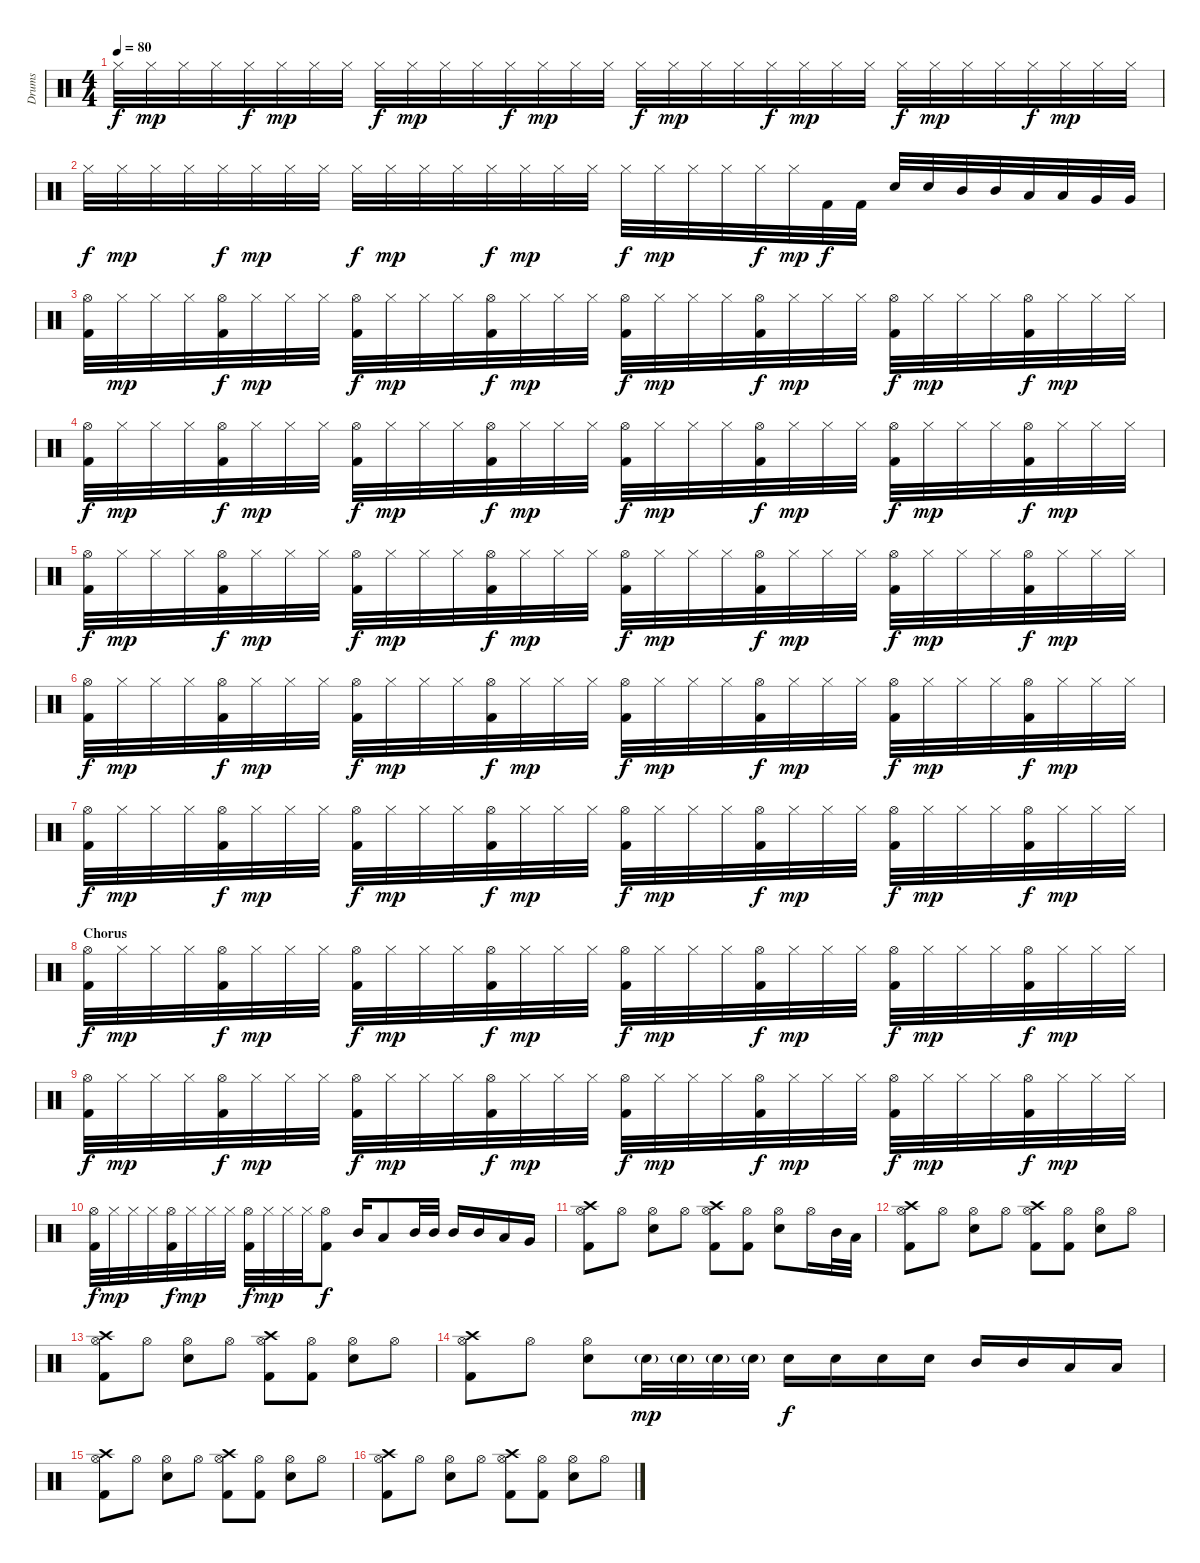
\track ("Drums" "Drums") {instrument percussion}
\staff {score}
\articulation defaults
\ts (4 4)
\tempo 80
\clef neutral
\ks c "Hi-Hat (closed)".32{dy f} "Hi-Hat (closed)".32{dy mp} "Hi-Hat (closed)".32 "Hi-Hat (closed)".32 "Hi-Hat (closed)".32{dy f} "Hi-Hat (closed)".32{dy mp} "Hi-Hat (closed)".32 "Hi-Hat (closed)".32 "Hi-Hat (closed)".32{dy f} "Hi-Hat (closed)".32{dy mp} "Hi-Hat (closed)".32 "Hi-Hat (closed)".32 "Hi-Hat (closed)".32{dy f} "Hi-Hat (closed)".32{dy mp} "Hi-Hat (closed)".32 "Hi-Hat (closed)".32 "Hi-Hat (closed)".32{dy f} "Hi-Hat (closed)".32{dy mp} "Hi-Hat (closed)".32 "Hi-Hat (closed)".32 "Hi-Hat (closed)".32{dy f} "Hi-Hat (closed)".32{dy mp} "Hi-Hat (closed)".32 "Hi-Hat (closed)".32 "Hi-Hat (closed)".32{dy f} "Hi-Hat (closed)".32{dy mp} "Hi-Hat (closed)".32 "Hi-Hat (closed)".32 "Hi-Hat (closed)".32{dy f} "Hi-Hat (closed)".32{dy mp} "Hi-Hat (closed)".32 "Hi-Hat (closed)".32
|
"Hi-Hat (closed)".32{dy f} "Hi-Hat (closed)".32{dy mp} "Hi-Hat (closed)".32 "Hi-Hat (closed)".32 "Hi-Hat (closed)".32{dy f} "Hi-Hat (closed)".32{dy mp} "Hi-Hat (closed)".32 "Hi-Hat (closed)".32 "Hi-Hat (closed)".32{dy f} "Hi-Hat (closed)".32{dy mp} "Hi-Hat (closed)".32 "Hi-Hat (closed)".32 "Hi-Hat (closed)".32{dy f} "Hi-Hat (closed)".32{dy mp} "Hi-Hat (closed)".32 "Hi-Hat (closed)".32 "Hi-Hat (closed)".32{dy f} "Hi-Hat (closed)".32{dy mp} "Hi-Hat (closed)".32 "Hi-Hat (closed)".32 "Hi-Hat (closed)".32{dy f} "Hi-Hat (closed)".32{dy mp} "Kick (hit) 2".32{dy f} "Kick (hit) 2".32 "Electric Snare (hit)".32 "Electric Snare (hit)".32 "Mid Tom (hit)".32 "Mid Tom (hit)".32 "Low Tom (hit)".32 "Low Tom (hit)".32 "Very Low Tom (hit)".32 "Very Low Tom (hit)".32 |
("Kick (hit) 2" "Hi-Hat (open)").32 "Hi-Hat (closed)".32{dy mp} "Hi-Hat (closed)".32 "Hi-Hat (closed)".32 ("Kick (hit) 2" "Hi-Hat (open)").32{dy f} "Hi-Hat (closed)".32{dy mp} "Hi-Hat (closed)".32 "Hi-Hat (closed)".32 ("Kick (hit) 2" "Hi-Hat (open)").32{dy f} "Hi-Hat (closed)".32{dy mp} "Hi-Hat (closed)".32 "Hi-Hat (closed)".32 ("Kick (hit) 2" "Hi-Hat (open)").32{dy f} "Hi-Hat (closed)".32{dy mp} "Hi-Hat (closed)".32 "Hi-Hat (closed)".32 ("Kick (hit) 2" "Hi-Hat (open)").32{dy f} "Hi-Hat (closed)".32{dy mp} "Hi-Hat (closed)".32 "Hi-Hat (closed)".32 ("Kick (hit) 2" "Hi-Hat (open)").32{dy f} "Hi-Hat (closed)".32{dy mp} "Hi-Hat (closed)".32 "Hi-Hat (closed)".32 ("Kick (hit) 2" "Hi-Hat (open)").32{dy f} "Hi-Hat (closed)".32{dy mp} "Hi-Hat (closed)".32 "Hi-Hat (closed)".32 ("Kick (hit) 2" "Hi-Hat (open)").32{dy f} "Hi-Hat (closed)".32{dy mp} "Hi-Hat (closed)".32 "Hi-Hat (closed)".32 |
("Kick (hit) 2" "Hi-Hat (open)").32{dy f} "Hi-Hat (closed)".32{dy mp} "Hi-Hat (closed)".32 "Hi-Hat (closed)".32 ("Kick (hit) 2" "Hi-Hat (open)").32{dy f} "Hi-Hat (closed)".32{dy mp} "Hi-Hat (closed)".32 "Hi-Hat (closed)".32 ("Kick (hit) 2" "Hi-Hat (open)").32{dy f} "Hi-Hat (closed)".32{dy mp} "Hi-Hat (closed)".32 "Hi-Hat (closed)".32 ("Kick (hit) 2" "Hi-Hat (open)").32{dy f} "Hi-Hat (closed)".32{dy mp} "Hi-Hat (closed)".32 "Hi-Hat (closed)".32 ("Kick (hit) 2" "Hi-Hat (open)").32{dy f} "Hi-Hat (closed)".32{dy mp} "Hi-Hat (closed)".32 "Hi-Hat (closed)".32 ("Kick (hit) 2" "Hi-Hat (open)").32{dy f} "Hi-Hat (closed)".32{dy mp} "Hi-Hat (closed)".32 "Hi-Hat (closed)".32 ("Kick (hit) 2" "Hi-Hat (open)").32{dy f} "Hi-Hat (closed)".32{dy mp} "Hi-Hat (closed)".32 "Hi-Hat (closed)".32 ("Kick (hit) 2" "Hi-Hat (open)").32{dy f} "Hi-Hat (closed)".32{dy mp} "Hi-Hat (closed)".32 "Hi-Hat (closed)".32 |
("Kick (hit) 2" "Hi-Hat (open)").32{dy f} "Hi-Hat (closed)".32{dy mp} "Hi-Hat (closed)".32 "Hi-Hat (closed)".32 ("Kick (hit) 2" "Hi-Hat (open)").32{dy f} "Hi-Hat (closed)".32{dy mp} "Hi-Hat (closed)".32 "Hi-Hat (closed)".32 ("Kick (hit) 2" "Hi-Hat (open)").32{dy f} "Hi-Hat (closed)".32{dy mp} "Hi-Hat (closed)".32 "Hi-Hat (closed)".32 ("Kick (hit) 2" "Hi-Hat (open)").32{dy f} "Hi-Hat (closed)".32{dy mp} "Hi-Hat (closed)".32 "Hi-Hat (closed)".32 ("Kick (hit) 2" "Hi-Hat (open)").32{dy f} "Hi-Hat (closed)".32{dy mp} "Hi-Hat (closed)".32 "Hi-Hat (closed)".32 ("Kick (hit) 2" "Hi-Hat (open)").32{dy f} "Hi-Hat (closed)".32{dy mp} "Hi-Hat (closed)".32 "Hi-Hat (closed)".32 ("Kick (hit) 2" "Hi-Hat (open)").32{dy f} "Hi-Hat (closed)".32{dy mp} "Hi-Hat (closed)".32 "Hi-Hat (closed)".32 ("Kick (hit) 2" "Hi-Hat (open)").32{dy f} "Hi-Hat (closed)".32{dy mp} "Hi-Hat (closed)".32 "Hi-Hat (closed)".32 |
("Kick (hit) 2" "Hi-Hat (open)").32{dy f} "Hi-Hat (closed)".32{dy mp} "Hi-Hat (closed)".32 "Hi-Hat (closed)".32 ("Kick (hit) 2" "Hi-Hat (open)").32{dy f} "Hi-Hat (closed)".32{dy mp} "Hi-Hat (closed)".32 "Hi-Hat (closed)".32 ("Kick (hit) 2" "Hi-Hat (open)").32{dy f} "Hi-Hat (closed)".32{dy mp} "Hi-Hat (closed)".32 "Hi-Hat (closed)".32 ("Kick (hit) 2" "Hi-Hat (open)").32{dy f} "Hi-Hat (closed)".32{dy mp} "Hi-Hat (closed)".32 "Hi-Hat (closed)".32 ("Kick (hit) 2" "Hi-Hat (open)").32{dy f} "Hi-Hat (closed)".32{dy mp} "Hi-Hat (closed)".32 "Hi-Hat (closed)".32 ("Kick (hit) 2" "Hi-Hat (open)").32{dy f} "Hi-Hat (closed)".32{dy mp} "Hi-Hat (closed)".32 "Hi-Hat (closed)".32 ("Kick (hit) 2" "Hi-Hat (open)").32{dy f} "Hi-Hat (closed)".32{dy mp} "Hi-Hat (closed)".32 "Hi-Hat (closed)".32 ("Kick (hit) 2" "Hi-Hat (open)").32{dy f} "Hi-Hat (closed)".32{dy mp} "Hi-Hat (closed)".32 "Hi-Hat (closed)".32 |
("Kick (hit) 2" "Hi-Hat (open)").32{dy f} "Hi-Hat (closed)".32{dy mp} "Hi-Hat (closed)".32 "Hi-Hat (closed)".32 ("Kick (hit) 2" "Hi-Hat (open)").32{dy f} "Hi-Hat (closed)".32{dy mp} "Hi-Hat (closed)".32 "Hi-Hat (closed)".32 ("Kick (hit) 2" "Hi-Hat (open)").32{dy f} "Hi-Hat (closed)".32{dy mp} "Hi-Hat (closed)".32 "Hi-Hat (closed)".32 ("Kick (hit) 2" "Hi-Hat (open)").32{dy f} "Hi-Hat (closed)".32{dy mp} "Hi-Hat (closed)".32 "Hi-Hat (closed)".32 ("Kick (hit) 2" "Hi-Hat (open)").32{dy f} "Hi-Hat (closed)".32{dy mp} "Hi-Hat (closed)".32 "Hi-Hat (closed)".32 ("Kick (hit) 2" "Hi-Hat (open)").32{dy f} "Hi-Hat (closed)".32{dy mp} "Hi-Hat (closed)".32 "Hi-Hat (closed)".32 ("Kick (hit) 2" "Hi-Hat (open)").32{dy f} "Hi-Hat (closed)".32{dy mp} "Hi-Hat (closed)".32 "Hi-Hat (closed)".32 ("Kick (hit) 2" "Hi-Hat (open)").32{dy f} "Hi-Hat (closed)".32{dy mp} "Hi-Hat (closed)".32 "Hi-Hat (closed)".32 |
\section ("" "Chorus")
("Kick (hit) 2" "Hi-Hat (open)").32{dy f} "Hi-Hat (closed)".32{dy mp} "Hi-Hat (closed)".32 "Hi-Hat (closed)".32 ("Kick (hit) 2" "Hi-Hat (open)").32{dy f} "Hi-Hat (closed)".32{dy mp} "Hi-Hat (closed)".32 "Hi-Hat (closed)".32 ("Kick (hit) 2" "Hi-Hat (open)").32{dy f} "Hi-Hat (closed)".32{dy mp} "Hi-Hat (closed)".32 "Hi-Hat (closed)".32 ("Kick (hit) 2" "Hi-Hat (open)").32{dy f} "Hi-Hat (closed)".32{dy mp} "Hi-Hat (closed)".32 "Hi-Hat (closed)".32 ("Kick (hit) 2" "Hi-Hat (open)").32{dy f} "Hi-Hat (closed)".32{dy mp} "Hi-Hat (closed)".32 "Hi-Hat (closed)".32 ("Kick (hit) 2" "Hi-Hat (open)").32{dy f} "Hi-Hat (closed)".32{dy mp} "Hi-Hat (closed)".32 "Hi-Hat (closed)".32 ("Kick (hit) 2" "Hi-Hat (open)").32{dy f} "Hi-Hat (closed)".32{dy mp} "Hi-Hat (closed)".32 "Hi-Hat (closed)".32 ("Kick (hit) 2" "Hi-Hat (open)").32{dy f} "Hi-Hat (closed)".32{dy mp} "Hi-Hat (closed)".32 "Hi-Hat (closed)".32 |
("Kick (hit) 2" "Hi-Hat (open)").32{dy f} "Hi-Hat (closed)".32{dy mp} "Hi-Hat (closed)".32 "Hi-Hat (closed)".32 ("Kick (hit) 2" "Hi-Hat (open)").32{dy f} "Hi-Hat (closed)".32{dy mp} "Hi-Hat (closed)".32 "Hi-Hat (closed)".32 ("Kick (hit) 2" "Hi-Hat (open)").32{dy f} "Hi-Hat (closed)".32{dy mp} "Hi-Hat (closed)".32 "Hi-Hat (closed)".32 ("Kick (hit) 2" "Hi-Hat (open)").32{dy f} "Hi-Hat (closed)".32{dy mp} "Hi-Hat (closed)".32 "Hi-Hat (closed)".32 ("Kick (hit) 2" "Hi-Hat (open)").32{dy f} "Hi-Hat (closed)".32{dy mp} "Hi-Hat (closed)".32 "Hi-Hat (closed)".32 ("Kick (hit) 2" "Hi-Hat (open)").32{dy f} "Hi-Hat (closed)".32{dy mp} "Hi-Hat (closed)".32 "Hi-Hat (closed)".32 ("Kick (hit) 2" "Hi-Hat (open)").32{dy f} "Hi-Hat (closed)".32{dy mp} "Hi-Hat (closed)".32 "Hi-Hat (closed)".32 ("Kick (hit) 2" "Hi-Hat (open)").32{dy f} "Hi-Hat (closed)".32{dy mp} "Hi-Hat (closed)".32 "Hi-Hat (closed)".32 |
("Kick (hit) 2" "Hi-Hat (open)").32{dy f} "Hi-Hat (closed)".32{dy mp} "Hi-Hat (closed)".32 "Hi-Hat (closed)".32 ("Kick (hit) 2" "Hi-Hat (open)").32{dy f} "Hi-Hat (closed)".32{dy mp} "Hi-Hat (closed)".32 "Hi-Hat (closed)".32 ("Kick (hit) 2" "Hi-Hat (open)").32{dy f} "Hi-Hat (closed)".32{dy mp} "Hi-Hat (closed)".32 "Hi-Hat (closed)".32 ("Kick (hit) 2" "Hi-Hat (open)").8{dy f} "Mid Tom (hit)".16 "Low Tom (hit)".8 "Mid Tom (hit)".32 "Mid Tom (hit)".32 "Mid Tom (hit)".16 "Mid Tom (hit)".16 "Low Tom (hit)".16 "Very Low Tom (hit)".16 |
("Crash high (hit)" "Hi-Hat (open)" "Kick (hit) 2").8 "Hi-Hat (open)".8 ("Hi-Hat (open)" "Electric Snare (hit)").8 "Hi-Hat (open)".8 ("Crash high (hit)" "Hi-Hat (open)" "Kick (hit) 2").8 ("Hi-Hat (open)" "Kick (hit) 2").8 ("Hi-Hat (open)" "Electric Snare (hit)").8 "Hi-Hat (open)".16 "Mid Tom (hit)".32 "Low Tom (hit)".32 |
("Crash high (hit)" "Hi-Hat (open)" "Kick (hit) 2").8 "Hi-Hat (open)".8 ("Hi-Hat (open)" "Electric Snare (hit)").8 "Hi-Hat (open)".8 ("Crash high (hit)" "Hi-Hat (open)" "Kick (hit) 2").8 ("Hi-Hat (open)" "Kick (hit) 2").8 ("Hi-Hat (open)" "Electric Snare (hit)").8 "Hi-Hat (open)".8 |
("Crash high (hit)" "Hi-Hat (open)" "Kick (hit) 2").8 "Hi-Hat (open)".8 ("Hi-Hat (open)" "Electric Snare (hit)").8 "Hi-Hat (open)".8 ("Crash high (hit)" "Hi-Hat (open)" "Kick (hit) 2").8 ("Hi-Hat (open)" "Kick (hit) 2").8 ("Hi-Hat (open)" "Electric Snare (hit)").8 "Hi-Hat (open)".8 |
("Crash high (hit)" "Hi-Hat (open)" "Kick (hit) 2").8 "Hi-Hat (open)".8 ("Hi-Hat (open)" "Electric Snare (hit)").8 "Electric Snare (hit)"{g}.32{dy mp} "Electric Snare (hit)"{g}.32 "Electric Snare (hit)"{g}.32 "Electric Snare (hit)"{g}.32 "Electric Snare (hit)".16{dy f} "Electric Snare (hit)".16 "Electric Snare (hit)".16 "Electric Snare (hit)".16 "Mid Tom (hit)".16 "Mid Tom (hit)".16 "Low Tom (hit)".16 "Low Tom (hit)".16 |
("Crash high (hit)" "Hi-Hat (open)" "Kick (hit) 2").8 "Hi-Hat (open)".8 ("Hi-Hat (open)" "Electric Snare (hit)").8 "Hi-Hat (open)".8 ("Crash high (hit)" "Hi-Hat (open)" "Kick (hit) 2").8 ("Hi-Hat (open)" "Kick (hit) 2").8 ("Hi-Hat (open)" "Electric Snare (hit)").8 "Hi-Hat (open)".8 |
("Crash high (hit)" "Hi-Hat (open)" "Kick (hit) 2").8 "Hi-Hat (open)".8 ("Hi-Hat (open)" "Electric Snare (hit)").8 "Hi-Hat (open)".8 ("Crash high (hit)" "Hi-Hat (open)" "Kick (hit) 2").8 ("Hi-Hat (open)" "Kick (hit) 2").8 ("Hi-Hat (open)" "Electric Snare (hit)").8 "Hi-Hat (open)".8
